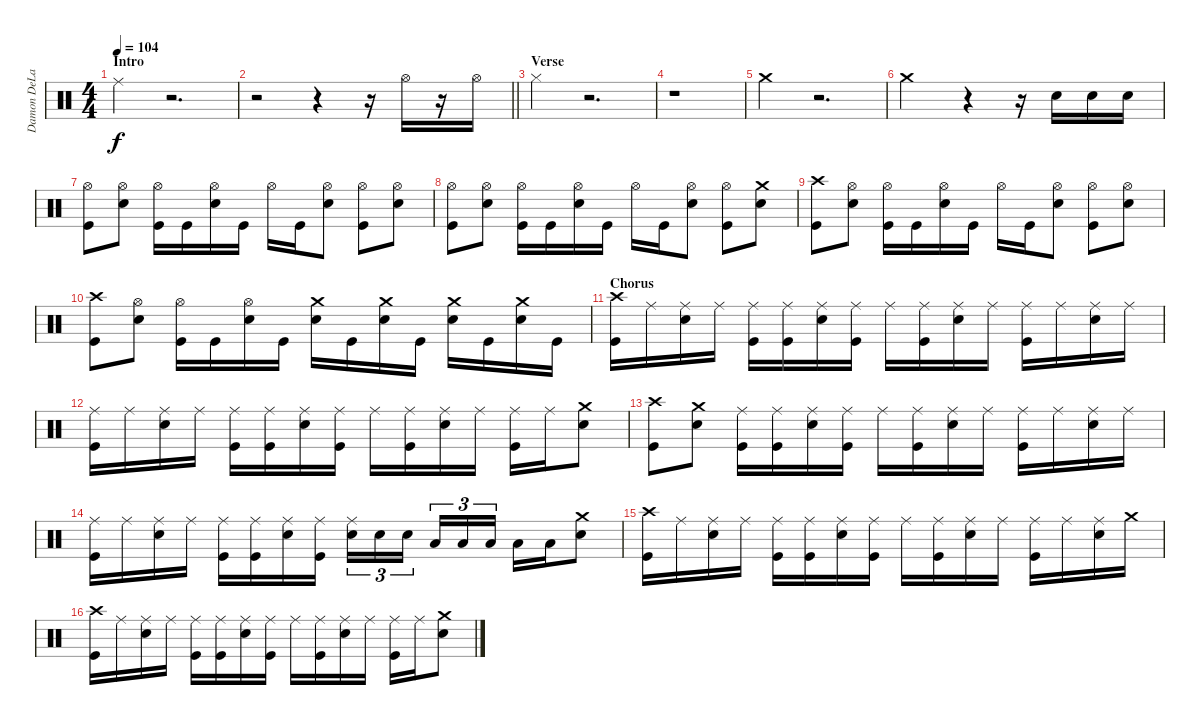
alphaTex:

\track ("Damon DeLapaz - Drums" "Damon DeLa") {instrument percussion}
\staff {score}
\articulation defaults
\ts (4 4)
\section ("" "Intro")
\tempo 104
\clef neutral
\ks c "Ride (middle)".4{dy f}
r.2{d} |
\barLineRight lightlight
r.2 r.4 r.16 "Hi-Hat (open)".16 r.16 "Hi-Hat (open)".16 |
\section ("" "Verse")
"Hi-Hat (closed)".4 r.2{d} |
r.1 |
"Crash medium (hit)".4 r.2{d} |
"Crash medium (hit)".2 r.4 r.16 "Snare (hit) 2".16 "Snare (hit) 2".16 "Snare (hit) 2".16 |
("Hi-Hat (open)" "Kick (hit)").8 ("Hi-Hat (open)" "Snare (hit) 2").8 ("Hi-Hat (open)" "Kick (hit)").16 "Kick (hit)".16 ("Hi-Hat (open)" "Snare (hit) 2").16 "Kick (hit)".16 "Hi-Hat (open)".16 "Kick (hit)".16 ("Hi-Hat (open)" "Snare (hit) 2").8 ("Hi-Hat (open)" "Kick (hit)").8 ("Hi-Hat (open)" "Snare (hit) 2").8 |
("Hi-Hat (open)" "Kick (hit)").8 ("Hi-Hat (open)" "Snare (hit) 2").8 ("Hi-Hat (open)" "Kick (hit)").16 "Kick (hit)".16 ("Hi-Hat (open)" "Snare (hit) 2").16 "Kick (hit)".16 "Hi-Hat (open)".16 "Kick (hit)".16 ("Hi-Hat (open)" "Snare (hit) 2").8 ("Hi-Hat (open)" "Kick (hit)").8 ("Crash medium (hit)" "Snare (hit) 2").8 |
("Crash high (hit)" "Kick (hit)").8 ("Hi-Hat (open)" "Snare (hit) 2").8 ("Hi-Hat (open)" "Kick (hit)").16 "Kick (hit)".16 ("Hi-Hat (open)" "Snare (hit) 2").16 "Kick (hit)".16 "Hi-Hat (open)".16 "Kick (hit)".16 ("Hi-Hat (open)" "Snare (hit) 2").8 ("Hi-Hat (open)" "Kick (hit)").8 ("Hi-Hat (open)" "Snare (hit) 2").8 |
("Crash high (hit)" "Kick (hit)").8 ("Hi-Hat (open)" "Snare (hit) 2").8 ("Hi-Hat (open)" "Kick (hit)").16 "Kick (hit)".16 ("Hi-Hat (open)" "Snare (hit) 2").16 "Kick (hit)".16 ("Crash medium (hit)" "Snare (hit) 2").16 "Kick (hit)".16 ("Crash medium (hit)" "Snare (hit) 2").16 "Kick (hit)".16 ("Crash medium (hit)" "Snare (hit) 2").16 "Kick (hit)".16 ("Crash medium (hit)" "Snare (hit) 2").16 "Kick (hit)".16 |
\section ("" "Chorus")
("Crash high (hit)" "Kick (hit)").16 "Ride (middle)".16 ("Ride (middle)" "Snare (hit) 2").16 "Ride (middle)".16 ("Ride (middle)" "Kick (hit)").16 ("Ride (middle)" "Kick (hit)").16 ("Ride (middle)" "Snare (hit) 2").16 ("Ride (middle)" "Kick (hit)").16 "Ride (middle)".16 ("Ride (middle)" "Kick (hit)").16 ("Ride (middle)" "Snare (hit) 2").16 "Ride (middle)".16 ("Ride (middle)" "Kick (hit)").16 "Ride (middle)".16 ("Ride (middle)" "Snare (hit) 2").16 "Ride (middle)".16 |
("Ride (middle)" "Kick (hit)").16 "Ride (middle)".16 ("Ride (middle)" "Snare (hit) 2").16 "Ride (middle)".16 ("Ride (middle)" "Kick (hit)").16 ("Ride (middle)" "Kick (hit)").16 ("Ride (middle)" "Snare (hit) 2").16 ("Ride (middle)" "Kick (hit)").16 "Ride (middle)".16 ("Ride (middle)" "Kick (hit)").16 ("Ride (middle)" "Snare (hit) 2").16 "Ride (middle)".16 ("Ride (middle)" "Kick (hit)").16 "Ride (middle)".16 ("Crash medium (hit)" "Snare (hit) 2").8 |
("Crash high (hit)" "Kick (hit)").8 ("Crash medium (hit)" "Snare (hit) 2").8 ("Ride (middle)" "Kick (hit)").16 ("Ride (middle)" "Kick (hit)").16 ("Ride (middle)" "Snare (hit) 2").16 ("Ride (middle)" "Kick (hit)").16 "Ride (middle)".16 ("Ride (middle)" "Kick (hit)").16 ("Ride (middle)" "Snare (hit) 2").16 "Ride (middle)".16 ("Ride (middle)" "Kick (hit)").16 "Ride (middle)".16 ("Ride (middle)" "Snare (hit) 2").16 "Ride (middle)".16 |
("Ride (middle)" "Kick (hit)").16 "Ride (middle)".16 ("Ride (middle)" "Snare (hit) 2").16 "Ride (middle)".16 ("Ride (middle)" "Kick (hit)").16 ("Ride (middle)" "Kick (hit)").16 ("Ride (middle)" "Snare (hit) 2").16 ("Ride (middle)" "Kick (hit)").16 ("Ride (middle)" "Snare (hit) 2").16{tu (3 2)} "Snare (hit) 2".16{tu (3 2)} "Snare (hit) 2".16{tu (3 2)} "Low Tom (hit)".16{tu (3 2)} "Low Tom (hit)".16{tu (3 2)} "Low Tom (hit)".16{tu (3 2)} "Low Floor Tom (hit)".16 "Low Floor Tom (hit)".16 ("Crash medium (hit)" "Snare (hit) 2").8 |
("Crash high (hit)" "Kick (hit)").16 "Ride (middle)".16 ("Ride (middle)" "Snare (hit) 2").16 "Ride (middle)".16 ("Ride (middle)" "Kick (hit)").16 ("Ride (middle)" "Kick (hit)").16 ("Ride (middle)" "Snare (hit) 2").16 ("Ride (middle)" "Kick (hit)").16 "Ride (middle)".16 ("Ride (middle)" "Kick (hit)").16 ("Ride (middle)" "Snare (hit) 2").16 "Ride (middle)".16 ("Ride (middle)" "Kick (hit)").16 "Ride (middle)".16 ("Ride (middle)" "Snare (hit) 2").16 "Crash medium (hit)".16 |
("Crash high (hit)" "Kick (hit)").16 "Ride (middle)".16 ("Ride (middle)" "Snare (hit) 2").16 "Ride (middle)".16 ("Ride (middle)" "Kick (hit)").16 ("Ride (middle)" "Kick (hit)").16 ("Ride (middle)" "Snare (hit) 2").16 ("Ride (middle)" "Kick (hit)").16 "Ride (middle)".16 ("Ride (middle)" "Kick (hit)").16 ("Ride (middle)" "Snare (hit) 2").16 "Ride (middle)".16 ("Ride (middle)" "Kick (hit)").16 "Ride (middle)".16 ("Crash medium (hit)" "Snare (hit) 2").8
